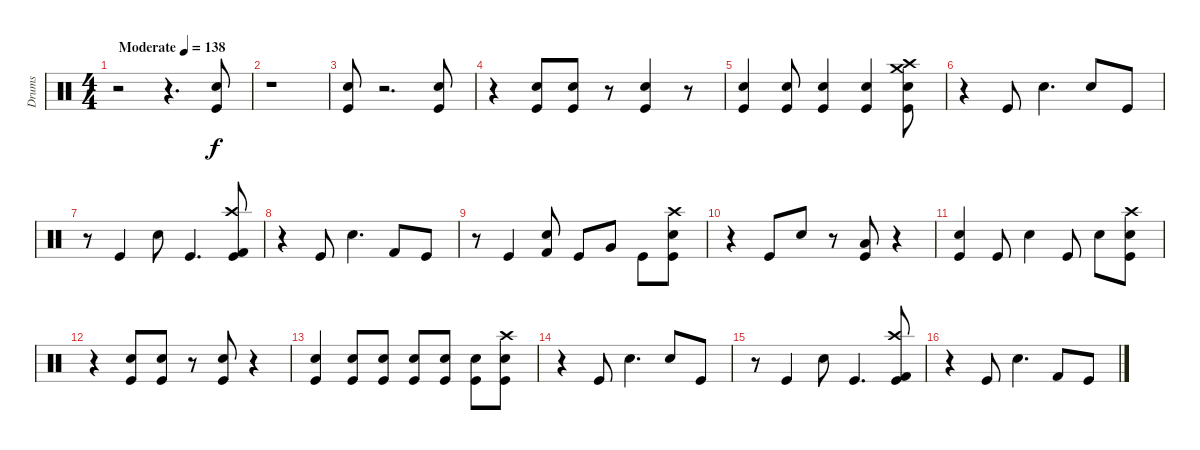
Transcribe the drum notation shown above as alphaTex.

\track ("Drums" "Drums") {instrument percussion}
\staff {score}
\articulation defaults
\ts (4 4)
\tempo (138 "Moderate")
\clef neutral
\ks c
r.2{dy f} r.4{d} ("Snare (hit) 2" "Kick (hit)").8 |
r.1 |
("Snare (hit) 2" "Kick (hit)").8 r.2{d} ("Snare (hit) 2" "Kick (hit)").8 |
r.4 ("Snare (hit) 2" "Kick (hit)").8 ("Snare (hit) 2" "Kick (hit)").8 r.8 ("Snare (hit) 2" "Kick (hit)").4 r.8 |
("Snare (hit) 2" "Kick (hit)").4 ("Snare (hit) 2" "Kick (hit)").8 ("Snare (hit) 2" "Kick (hit)").4 ("Snare (hit) 2" "Kick (hit)").4 ("Crash medium (hit)" "Crash high (hit)" "Snare (hit) 2" "Kick (hit)").8 |
r.4 "Kick (hit)".8 "Snare (hit) 2".4{d} "Snare (hit) 2".8 "Kick (hit)".8 |
r.8 "Kick (hit)".4 "Snare (hit) 2".8 "Kick (hit)".4{d} ("Crash high (hit)" "Kick (hit) 2" "Kick (hit)").8 |
r.4 "Kick (hit)".8 "Snare (hit) 2".4{d} "Kick (hit) 2".8 "Kick (hit)".8 |
r.8 "Kick (hit)".4 ("Snare (hit) 2" "Kick (hit) 2").8 "Kick (hit)".8 "Very Low Tom (hit)".8 "Kick (hit)".8 ("Crash high (hit)" "Snare (hit) 2" "Kick (hit)").8 |
r.4 "Kick (hit)".8 "Snare (hit) 2".8 r.8 ("Low Tom (hit)" "Kick (hit)").8 r.4 |
("Snare (hit) 2" "Kick (hit)").4 "Kick (hit)".8 "Snare (hit) 2".4 "Kick (hit)".8 "Snare (hit) 2".8 ("Crash high (hit)" "Snare (hit) 2" "Kick (hit)").8 |
r.4 ("Snare (hit) 2" "Kick (hit)").8 ("Snare (hit) 2" "Kick (hit)").8 r.8 ("Snare (hit) 2" "Kick (hit)").8 r.4 |
("Snare (hit) 2" "Kick (hit)").4 ("Snare (hit) 2" "Kick (hit)").8 ("Snare (hit) 2" "Kick (hit)").8 ("Snare (hit) 2" "Kick (hit)").8 ("Snare (hit) 2" "Kick (hit)").8 ("Snare (hit) 2" "Kick (hit)").8 ("Crash high (hit)" "Snare (hit) 2" "Kick (hit)").8 |
r.4 "Kick (hit)".8 "Snare (hit) 2".4{d} "Snare (hit) 2".8 "Kick (hit)".8 |
r.8 "Kick (hit)".4 "Snare (hit) 2".8 "Kick (hit)".4{d} ("Crash high (hit)" "Kick (hit) 2" "Kick (hit)").8 |
r.4 "Kick (hit)".8 "Snare (hit) 2".4{d} "Kick (hit) 2".8 "Kick (hit)".8
